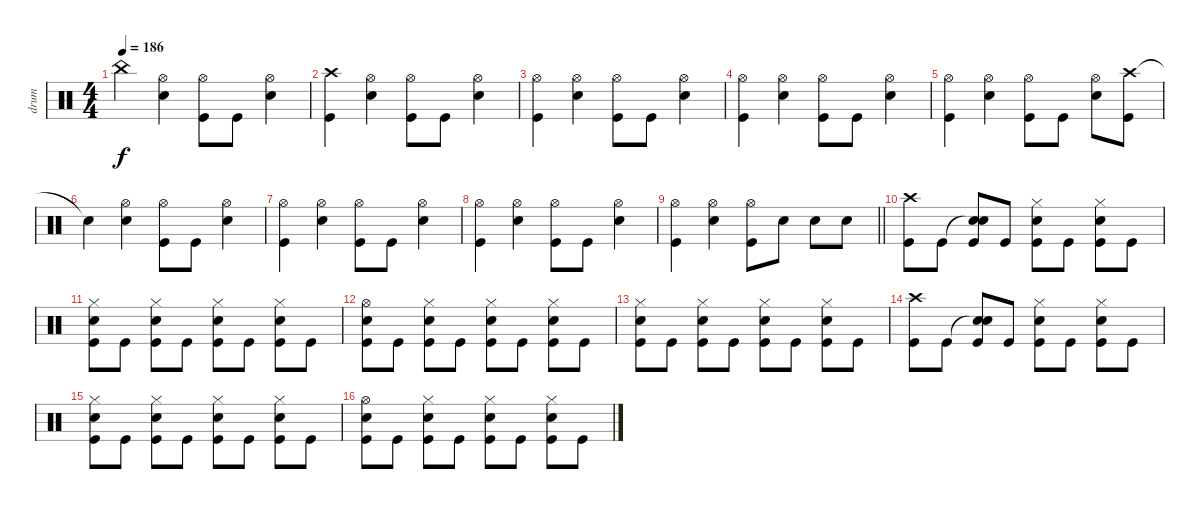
\track ("drum" "drum") {instrument percussion}
\staff {score}
\articulation defaults
\ts (4 4)
\tempo 186
\clef neutral
\ks c "China (hit)"{t}.4{dy f}
("Hi-Hat (open)" "Snare (hit) 2").4 ("Hi-Hat (open)" "Kick (hit)").8 "Kick (hit)".8 ("Hi-Hat (open)" "Snare (hit) 2").4 |
("Crash high (hit)" "Kick (hit)").4 ("Hi-Hat (open)" "Snare (hit) 2").4 ("Hi-Hat (open)" "Kick (hit)").8 "Kick (hit)".8 ("Hi-Hat (open)" "Snare (hit) 2").4 |
("Hi-Hat (open)" "Kick (hit)").4 ("Hi-Hat (open)" "Snare (hit) 2").4 ("Hi-Hat (open)" "Kick (hit)").8 "Kick (hit)".8 ("Hi-Hat (open)" "Snare (hit) 2").4 |
("Hi-Hat (open)" "Kick (hit)").4 ("Hi-Hat (open)" "Snare (hit) 2").4 ("Hi-Hat (open)" "Kick (hit)").8 "Kick (hit)".8 ("Hi-Hat (open)" "Snare (hit) 2").4 |
("Hi-Hat (open)" "Kick (hit)").4 ("Hi-Hat (open)" "Snare (hit) 2").4 ("Hi-Hat (open)" "Kick (hit)").8 "Kick (hit)".8 ("Hi-Hat (open)" "Snare (hit) 2").8 ("Crash high (hit)" "Kick (hit)").8 |
"Snare (hit)"{t}.4 ("Hi-Hat (open)" "Snare (hit) 2").4 ("Hi-Hat (open)" "Kick (hit)").8 "Kick (hit)".8 ("Hi-Hat (open)" "Snare (hit) 2").4 |
("Hi-Hat (open)" "Kick (hit)").4 ("Hi-Hat (open)" "Snare (hit) 2").4 ("Hi-Hat (open)" "Kick (hit)").8 "Kick (hit)".8 ("Hi-Hat (open)" "Snare (hit) 2").4 |
("Hi-Hat (open)" "Kick (hit)").4 ("Hi-Hat (open)" "Snare (hit) 2").4 ("Hi-Hat (open)" "Kick (hit)").8 "Kick (hit)".8 ("Hi-Hat (open)" "Snare (hit) 2").4 |
\barLineRight lightlight
("Hi-Hat (open)" "Kick (hit)").4 ("Hi-Hat (open)" "Snare (hit) 2").4 ("Hi-Hat (open)" "Kick (hit)").8 "Snare (hit) 2".8 "Snare (hit) 2".8 "Snare (hit) 2".8 |
("Crash high (hit)" "Kick (hit)").8 "Kick (hit)".8 ("Snare (hit)"{t} "Snare (hit) 2" "Kick (hit)").8 "Kick (hit)".8 ("Hi-Hat (closed)" "Snare (hit) 2" "Kick (hit)").8 "Kick (hit)".8 ("Hi-Hat (closed)" "Snare (hit) 2" "Kick (hit)").8 "Kick (hit)".8 |
("Hi-Hat (closed)" "Snare (hit) 2" "Kick (hit)").8 "Kick (hit)".8 ("Hi-Hat (closed)" "Snare (hit) 2" "Kick (hit)").8 "Kick (hit)".8 ("Hi-Hat (closed)" "Snare (hit) 2" "Kick (hit)").8 "Kick (hit)".8 ("Hi-Hat (closed)" "Snare (hit) 2" "Kick (hit)").8 "Kick (hit)".8 |
("Hi-Hat (open)" "Snare (hit) 2" "Kick (hit)").8 "Kick (hit)".8 ("Hi-Hat (closed)" "Snare (hit) 2" "Kick (hit)").8 "Kick (hit)".8 ("Hi-Hat (closed)" "Snare (hit) 2" "Kick (hit)").8 "Kick (hit)".8 ("Hi-Hat (closed)" "Snare (hit) 2" "Kick (hit)").8 "Kick (hit)".8 |
("Hi-Hat (closed)" "Snare (hit) 2" "Kick (hit)").8 "Kick (hit)".8 ("Hi-Hat (closed)" "Snare (hit) 2" "Kick (hit)").8 "Kick (hit)".8 ("Hi-Hat (closed)" "Snare (hit) 2" "Kick (hit)").8 "Kick (hit)".8 ("Hi-Hat (closed)" "Snare (hit) 2" "Kick (hit)").8 "Kick (hit)".8 |
("Crash high (hit)" "Kick (hit)").8 "Kick (hit)".8 ("Snare (hit)"{t} "Snare (hit) 2" "Kick (hit)").8 "Kick (hit)".8 ("Hi-Hat (closed)" "Snare (hit) 2" "Kick (hit)").8 "Kick (hit)".8 ("Hi-Hat (closed)" "Snare (hit) 2" "Kick (hit)").8 "Kick (hit)".8 |
("Hi-Hat (closed)" "Snare (hit) 2" "Kick (hit)").8 "Kick (hit)".8 ("Hi-Hat (closed)" "Snare (hit) 2" "Kick (hit)").8 "Kick (hit)".8 ("Hi-Hat (closed)" "Snare (hit) 2" "Kick (hit)").8 "Kick (hit)".8 ("Hi-Hat (closed)" "Snare (hit) 2" "Kick (hit)").8 "Kick (hit)".8 |
("Hi-Hat (open)" "Snare (hit) 2" "Kick (hit)").8 "Kick (hit)".8 ("Hi-Hat (closed)" "Snare (hit) 2" "Kick (hit)").8 "Kick (hit)".8 ("Hi-Hat (closed)" "Snare (hit) 2" "Kick (hit)").8 "Kick (hit)".8 ("Hi-Hat (closed)" "Snare (hit) 2" "Kick (hit)").8 "Kick (hit)".8
